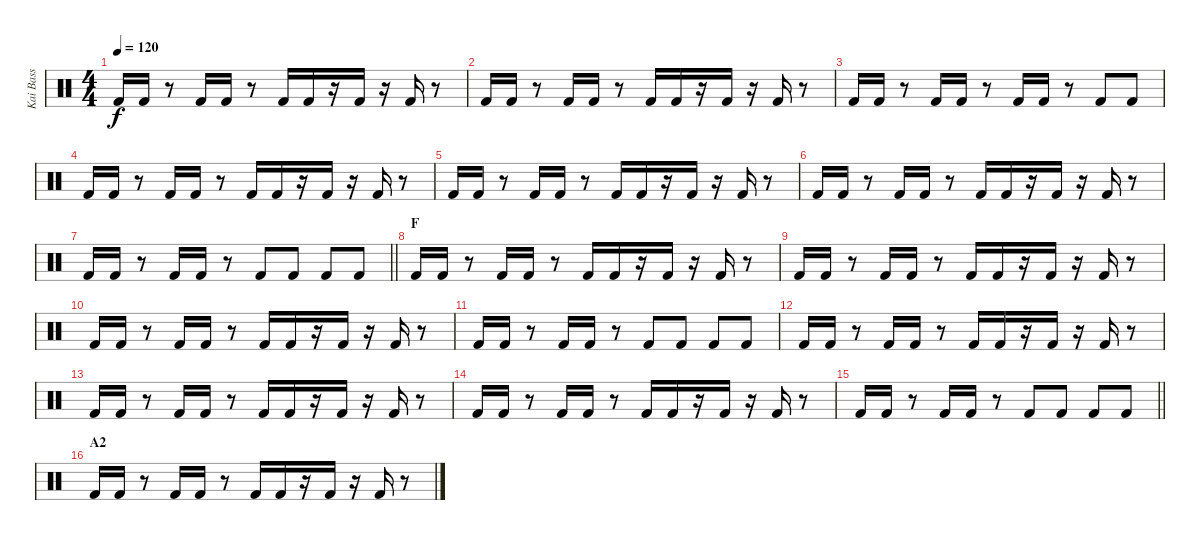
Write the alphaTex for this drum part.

\track ("Kai Bass" "Kai Bass") {instrument percussion}
\staff {score}
\articulation defaults
\ts (4 4)
\tempo 120
\clef neutral
\ks c "Kick (hit) 2".16{dy f} "Kick (hit) 2".16
r.8 "Kick (hit) 2".16 "Kick (hit) 2".16 r.8 "Kick (hit) 2".16 "Kick (hit) 2".16 r.16 "Kick (hit) 2".16 r.16 "Kick (hit) 2".16 r.8 |
"Kick (hit) 2".16 "Kick (hit) 2".16 r.8 "Kick (hit) 2".16 "Kick (hit) 2".16 r.8 "Kick (hit) 2".16 "Kick (hit) 2".16 r.16 "Kick (hit) 2".16 r.16 "Kick (hit) 2".16 r.8 |
"Kick (hit) 2".16 "Kick (hit) 2".16 r.8 "Kick (hit) 2".16 "Kick (hit) 2".16 r.8 "Kick (hit) 2".16 "Kick (hit) 2".16 r.8 "Kick (hit) 2".8 "Kick (hit) 2".8 |
"Kick (hit) 2".16 "Kick (hit) 2".16 r.8 "Kick (hit) 2".16 "Kick (hit) 2".16 r.8 "Kick (hit) 2".16 "Kick (hit) 2".16 r.16 "Kick (hit) 2".16 r.16 "Kick (hit) 2".16 r.8 |
"Kick (hit) 2".16 "Kick (hit) 2".16 r.8 "Kick (hit) 2".16 "Kick (hit) 2".16 r.8 "Kick (hit) 2".16 "Kick (hit) 2".16 r.16 "Kick (hit) 2".16 r.16 "Kick (hit) 2".16 r.8 |
"Kick (hit) 2".16 "Kick (hit) 2".16 r.8 "Kick (hit) 2".16 "Kick (hit) 2".16 r.8 "Kick (hit) 2".16 "Kick (hit) 2".16 r.16 "Kick (hit) 2".16 r.16 "Kick (hit) 2".16 r.8 |
\barLineRight lightlight "Kick (hit) 2".16 "Kick (hit) 2".16
r.8 "Kick (hit) 2".16 "Kick (hit) 2".16 r.8 "Kick (hit) 2".8 "Kick (hit) 2".8 "Kick (hit) 2".8 "Kick (hit) 2".8 |
\section ("" "F")
"Kick (hit) 2".16 "Kick (hit) 2".16 r.8 "Kick (hit) 2".16 "Kick (hit) 2".16 r.8 "Kick (hit) 2".16 "Kick (hit) 2".16 r.16 "Kick (hit) 2".16 r.16 "Kick (hit) 2".16 r.8 |
"Kick (hit) 2".16 "Kick (hit) 2".16 r.8 "Kick (hit) 2".16 "Kick (hit) 2".16 r.8 "Kick (hit) 2".16 "Kick (hit) 2".16 r.16 "Kick (hit) 2".16 r.16 "Kick (hit) 2".16 r.8 |
"Kick (hit) 2".16 "Kick (hit) 2".16 r.8 "Kick (hit) 2".16 "Kick (hit) 2".16 r.8 "Kick (hit) 2".16 "Kick (hit) 2".16 r.16 "Kick (hit) 2".16 r.16 "Kick (hit) 2".16 r.8 |
"Kick (hit) 2".16 "Kick (hit) 2".16 r.8 "Kick (hit) 2".16 "Kick (hit) 2".16 r.8 "Kick (hit) 2".8 "Kick (hit) 2".8 "Kick (hit) 2".8 "Kick (hit) 2".8 |
"Kick (hit) 2".16 "Kick (hit) 2".16 r.8 "Kick (hit) 2".16 "Kick (hit) 2".16 r.8 "Kick (hit) 2".16 "Kick (hit) 2".16 r.16 "Kick (hit) 2".16 r.16 "Kick (hit) 2".16 r.8 |
"Kick (hit) 2".16 "Kick (hit) 2".16 r.8 "Kick (hit) 2".16 "Kick (hit) 2".16 r.8 "Kick (hit) 2".16 "Kick (hit) 2".16 r.16 "Kick (hit) 2".16 r.16 "Kick (hit) 2".16 r.8 |
"Kick (hit) 2".16 "Kick (hit) 2".16 r.8 "Kick (hit) 2".16 "Kick (hit) 2".16 r.8 "Kick (hit) 2".16 "Kick (hit) 2".16 r.16 "Kick (hit) 2".16 r.16 "Kick (hit) 2".16 r.8 |
\barLineRight lightlight "Kick (hit) 2".16 "Kick (hit) 2".16
r.8 "Kick (hit) 2".16 "Kick (hit) 2".16 r.8 "Kick (hit) 2".8 "Kick (hit) 2".8 "Kick (hit) 2".8 "Kick (hit) 2".8 |
\section ("" "A2")
"Kick (hit) 2".16 "Kick (hit) 2".16 r.8 "Kick (hit) 2".16 "Kick (hit) 2".16 r.8 "Kick (hit) 2".16 "Kick (hit) 2".16 r.16 "Kick (hit) 2".16 r.16 "Kick (hit) 2".16 r.8
